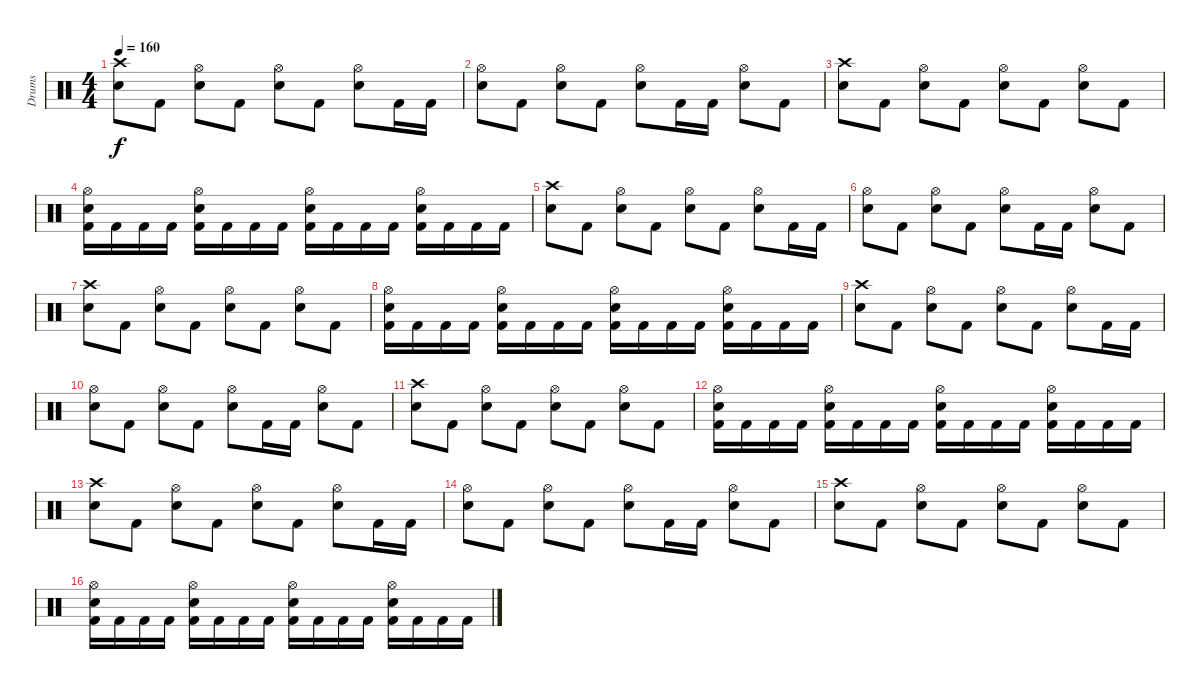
\track ("Drums" "Drums") {instrument percussion}
\staff {score}
\articulation defaults
\ts (4 4)
\tempo 160
\clef neutral
\ks c
("Electric Snare (hit)" "Crash high (hit)").8{dy f} "Kick (hit) 2".8 ("Electric Snare (hit)" "Hi-Hat (open)").8 "Kick (hit) 2".8 ("Electric Snare (hit)" "Hi-Hat (open)").8 "Kick (hit) 2".8 ("Electric Snare (hit)" "Hi-Hat (open)").8 "Kick (hit) 2".16 "Kick (hit) 2".16 |
("Electric Snare (hit)" "Hi-Hat (open)").8 "Kick (hit) 2".8 ("Electric Snare (hit)" "Hi-Hat (open)").8 "Kick (hit) 2".8 ("Electric Snare (hit)" "Hi-Hat (open)").8 "Kick (hit) 2".16 "Kick (hit) 2".16 ("Electric Snare (hit)" "Hi-Hat (open)").8 "Kick (hit) 2".8 |
("Electric Snare (hit)" "Crash high (hit)").8 "Kick (hit) 2".8 ("Electric Snare (hit)" "Hi-Hat (open)").8 "Kick (hit) 2".8 ("Electric Snare (hit)" "Hi-Hat (open)").8 "Kick (hit) 2".8 ("Electric Snare (hit)" "Hi-Hat (open)").8 "Kick (hit) 2".8 |
("Kick (hit) 2" "Electric Snare (hit)" "Hi-Hat (open)").16 "Kick (hit) 2".16 "Kick (hit) 2".16 "Kick (hit) 2".16 ("Kick (hit) 2" "Electric Snare (hit)" "Hi-Hat (open)").16 "Kick (hit) 2".16 "Kick (hit) 2".16 "Kick (hit) 2".16 ("Kick (hit) 2" "Electric Snare (hit)" "Hi-Hat (open)").16 "Kick (hit) 2".16 "Kick (hit) 2".16 "Kick (hit) 2".16 ("Kick (hit) 2" "Electric Snare (hit)" "Hi-Hat (open)").16 "Kick (hit) 2".16 "Kick (hit) 2".16 "Kick (hit) 2".16 |
("Electric Snare (hit)" "Crash high (hit)").8 "Kick (hit) 2".8 ("Electric Snare (hit)" "Hi-Hat (open)").8 "Kick (hit) 2".8 ("Electric Snare (hit)" "Hi-Hat (open)").8 "Kick (hit) 2".8 ("Electric Snare (hit)" "Hi-Hat (open)").8 "Kick (hit) 2".16 "Kick (hit) 2".16 |
("Electric Snare (hit)" "Hi-Hat (open)").8 "Kick (hit) 2".8 ("Electric Snare (hit)" "Hi-Hat (open)").8 "Kick (hit) 2".8 ("Electric Snare (hit)" "Hi-Hat (open)").8 "Kick (hit) 2".16 "Kick (hit) 2".16 ("Electric Snare (hit)" "Hi-Hat (open)").8 "Kick (hit) 2".8 |
("Electric Snare (hit)" "Crash high (hit)").8 "Kick (hit) 2".8 ("Electric Snare (hit)" "Hi-Hat (open)").8 "Kick (hit) 2".8 ("Electric Snare (hit)" "Hi-Hat (open)").8 "Kick (hit) 2".8 ("Electric Snare (hit)" "Hi-Hat (open)").8 "Kick (hit) 2".8 |
("Kick (hit) 2" "Electric Snare (hit)" "Hi-Hat (open)").16 "Kick (hit) 2".16 "Kick (hit) 2".16 "Kick (hit) 2".16 ("Kick (hit) 2" "Electric Snare (hit)" "Hi-Hat (open)").16 "Kick (hit) 2".16 "Kick (hit) 2".16 "Kick (hit) 2".16 ("Kick (hit) 2" "Electric Snare (hit)" "Hi-Hat (open)").16 "Kick (hit) 2".16 "Kick (hit) 2".16 "Kick (hit) 2".16 ("Kick (hit) 2" "Electric Snare (hit)" "Hi-Hat (open)").16 "Kick (hit) 2".16 "Kick (hit) 2".16 "Kick (hit) 2".16 |
("Electric Snare (hit)" "Crash high (hit)").8 "Kick (hit) 2".8 ("Electric Snare (hit)" "Hi-Hat (open)").8 "Kick (hit) 2".8 ("Electric Snare (hit)" "Hi-Hat (open)").8 "Kick (hit) 2".8 ("Electric Snare (hit)" "Hi-Hat (open)").8 "Kick (hit) 2".16 "Kick (hit) 2".16 |
("Electric Snare (hit)" "Hi-Hat (open)").8 "Kick (hit) 2".8 ("Electric Snare (hit)" "Hi-Hat (open)").8 "Kick (hit) 2".8 ("Electric Snare (hit)" "Hi-Hat (open)").8 "Kick (hit) 2".16 "Kick (hit) 2".16 ("Electric Snare (hit)" "Hi-Hat (open)").8 "Kick (hit) 2".8 |
("Electric Snare (hit)" "Crash high (hit)").8 "Kick (hit) 2".8 ("Electric Snare (hit)" "Hi-Hat (open)").8 "Kick (hit) 2".8 ("Electric Snare (hit)" "Hi-Hat (open)").8 "Kick (hit) 2".8 ("Electric Snare (hit)" "Hi-Hat (open)").8 "Kick (hit) 2".8 |
("Kick (hit) 2" "Electric Snare (hit)" "Hi-Hat (open)").16 "Kick (hit) 2".16 "Kick (hit) 2".16 "Kick (hit) 2".16 ("Kick (hit) 2" "Electric Snare (hit)" "Hi-Hat (open)").16 "Kick (hit) 2".16 "Kick (hit) 2".16 "Kick (hit) 2".16 ("Kick (hit) 2" "Electric Snare (hit)" "Hi-Hat (open)").16 "Kick (hit) 2".16 "Kick (hit) 2".16 "Kick (hit) 2".16 ("Kick (hit) 2" "Electric Snare (hit)" "Hi-Hat (open)").16 "Kick (hit) 2".16 "Kick (hit) 2".16 "Kick (hit) 2".16 |
("Electric Snare (hit)" "Crash high (hit)").8 "Kick (hit) 2".8 ("Electric Snare (hit)" "Hi-Hat (open)").8 "Kick (hit) 2".8 ("Electric Snare (hit)" "Hi-Hat (open)").8 "Kick (hit) 2".8 ("Electric Snare (hit)" "Hi-Hat (open)").8 "Kick (hit) 2".16 "Kick (hit) 2".16 |
("Electric Snare (hit)" "Hi-Hat (open)").8 "Kick (hit) 2".8 ("Electric Snare (hit)" "Hi-Hat (open)").8 "Kick (hit) 2".8 ("Electric Snare (hit)" "Hi-Hat (open)").8 "Kick (hit) 2".16 "Kick (hit) 2".16 ("Electric Snare (hit)" "Hi-Hat (open)").8 "Kick (hit) 2".8 |
("Electric Snare (hit)" "Crash high (hit)").8 "Kick (hit) 2".8 ("Electric Snare (hit)" "Hi-Hat (open)").8 "Kick (hit) 2".8 ("Electric Snare (hit)" "Hi-Hat (open)").8 "Kick (hit) 2".8 ("Electric Snare (hit)" "Hi-Hat (open)").8 "Kick (hit) 2".8 |
("Kick (hit) 2" "Electric Snare (hit)" "Hi-Hat (open)").16 "Kick (hit) 2".16 "Kick (hit) 2".16 "Kick (hit) 2".16 ("Kick (hit) 2" "Electric Snare (hit)" "Hi-Hat (open)").16 "Kick (hit) 2".16 "Kick (hit) 2".16 "Kick (hit) 2".16 ("Kick (hit) 2" "Electric Snare (hit)" "Hi-Hat (open)").16 "Kick (hit) 2".16 "Kick (hit) 2".16 "Kick (hit) 2".16 ("Kick (hit) 2" "Electric Snare (hit)" "Hi-Hat (open)").16 "Kick (hit) 2".16 "Kick (hit) 2".16 "Kick (hit) 2".16
